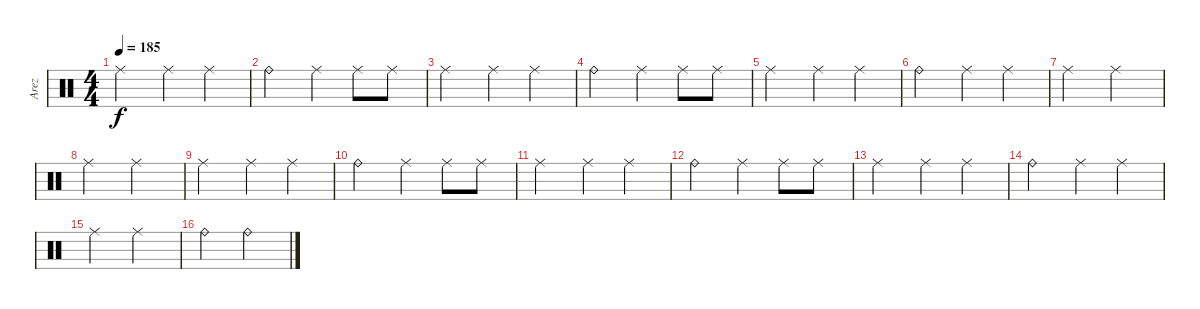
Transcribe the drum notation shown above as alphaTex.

\track ("Arez" "Arez") {instrument percussion}
\staff {score}
\articulation defaults
\ts (4 4)
\tempo 185
\clef neutral
\ks c "Ride (middle)".2{dy f} "Ride (middle)".4 "Ride (middle)".4
|
"Ride (bell)".2 "Ride (middle)".4 "Ride (middle)".8 "Ride (middle)".8 |
"Ride (middle)".2 "Ride (middle)".4 "Ride (middle)".4 |
"Ride (bell)".2 "Ride (middle)".4 "Ride (middle)".8 "Ride (middle)".8 |
"Ride (middle)".2 "Ride (middle)".4 "Ride (middle)".4 |
"Ride (bell)".2 "Ride (middle)".4 "Ride (middle)".4 |
"Ride (middle)".2 "Ride (middle)".2 |
"Ride (middle)".2 "Ride (middle)".2 |
"Ride (middle)".2 "Ride (middle)".4 "Ride (middle)".4 |
"Ride (bell)".2 "Ride (middle)".4 "Ride (middle)".8 "Ride (middle)".8 |
"Ride (middle)".2 "Ride (middle)".4 "Ride (middle)".4 |
"Ride (bell)".2 "Ride (middle)".4 "Ride (middle)".8 "Ride (middle)".8 |
"Ride (middle)".2 "Ride (middle)".4 "Ride (middle)".4 |
"Ride (bell)".2 "Ride (middle)".4 "Ride (middle)".4 |
"Ride (middle)".2 "Ride (middle)".2 |
"Ride (bell)".2 "Ride (bell)".2
